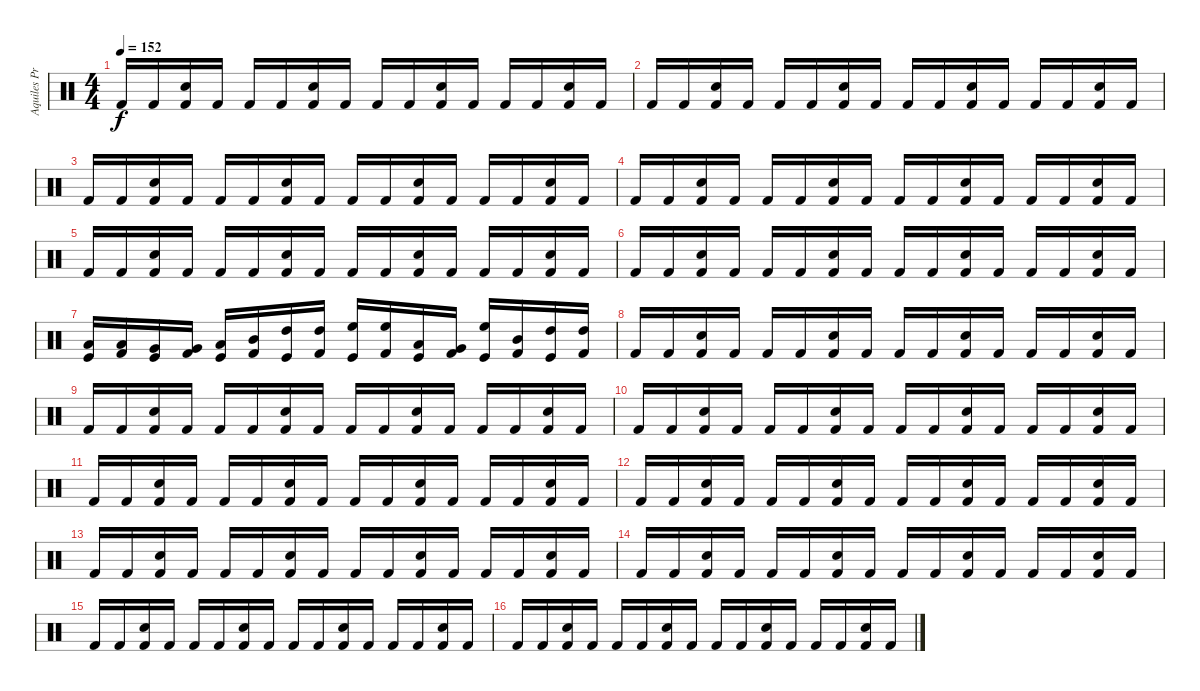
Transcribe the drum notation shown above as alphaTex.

\track ("Aquiles Priester" "Aquiles Pr") {instrument percussion}
\staff {score}
\articulation defaults
\ts (4 4)
\tempo 152
\clef neutral
\ks c "Kick (hit) 2".16{dy f} "Kick (hit) 2".16
("Electric Snare (hit)" "Kick (hit) 2").16 "Kick (hit) 2".16 "Kick (hit) 2".16 "Kick (hit) 2".16 ("Electric Snare (hit)" "Kick (hit) 2").16 "Kick (hit) 2".16 "Kick (hit) 2".16 "Kick (hit) 2".16 ("Electric Snare (hit)" "Kick (hit) 2").16 "Kick (hit) 2".16 "Kick (hit) 2".16 "Kick (hit) 2".16 ("Electric Snare (hit)" "Kick (hit) 2").16 "Kick (hit) 2".16 |
"Kick (hit) 2".16 "Kick (hit) 2".16 ("Electric Snare (hit)" "Kick (hit) 2").16 "Kick (hit) 2".16 "Kick (hit) 2".16 "Kick (hit) 2".16 ("Electric Snare (hit)" "Kick (hit) 2").16 "Kick (hit) 2".16 "Kick (hit) 2".16 "Kick (hit) 2".16 ("Electric Snare (hit)" "Kick (hit) 2").16 "Kick (hit) 2".16 "Kick (hit) 2".16 "Kick (hit) 2".16 ("Electric Snare (hit)" "Kick (hit) 2").16 "Kick (hit) 2".16 |
"Kick (hit) 2".16 "Kick (hit) 2".16 ("Electric Snare (hit)" "Kick (hit) 2").16 "Kick (hit) 2".16 "Kick (hit) 2".16 "Kick (hit) 2".16 ("Electric Snare (hit)" "Kick (hit) 2").16 "Kick (hit) 2".16 "Kick (hit) 2".16 "Kick (hit) 2".16 ("Electric Snare (hit)" "Kick (hit) 2").16 "Kick (hit) 2".16 "Kick (hit) 2".16 "Kick (hit) 2".16 ("Electric Snare (hit)" "Kick (hit) 2").16 "Kick (hit) 2".16 |
"Kick (hit) 2".16 "Kick (hit) 2".16 ("Electric Snare (hit)" "Kick (hit) 2").16 "Kick (hit) 2".16 "Kick (hit) 2".16 "Kick (hit) 2".16 ("Electric Snare (hit)" "Kick (hit) 2").16 "Kick (hit) 2".16 "Kick (hit) 2".16 "Kick (hit) 2".16 ("Electric Snare (hit)" "Kick (hit) 2").16 "Kick (hit) 2".16 "Kick (hit) 2".16 "Kick (hit) 2".16 ("Electric Snare (hit)" "Kick (hit) 2").16 "Kick (hit) 2".16 |
"Kick (hit) 2".16 "Kick (hit) 2".16 ("Electric Snare (hit)" "Kick (hit) 2").16 "Kick (hit) 2".16 "Kick (hit) 2".16 "Kick (hit) 2".16 ("Electric Snare (hit)" "Kick (hit) 2").16 "Kick (hit) 2".16 "Kick (hit) 2".16 "Kick (hit) 2".16 ("Electric Snare (hit)" "Kick (hit) 2").16 "Kick (hit) 2".16 "Kick (hit) 2".16 "Kick (hit) 2".16 ("Electric Snare (hit)" "Kick (hit) 2").16 "Kick (hit) 2".16 |
"Kick (hit) 2".16 "Kick (hit) 2".16 ("Electric Snare (hit)" "Kick (hit) 2").16 "Kick (hit) 2".16 "Kick (hit) 2".16 "Kick (hit) 2".16 ("Electric Snare (hit)" "Kick (hit) 2").16 "Kick (hit) 2".16 "Kick (hit) 2".16 "Kick (hit) 2".16 ("Electric Snare (hit)" "Kick (hit) 2").16 "Kick (hit) 2".16 "Kick (hit) 2".16 "Kick (hit) 2".16 ("Electric Snare (hit)" "Kick (hit) 2").16 "Kick (hit) 2".16 |
("Low Floor Tom (hit)" "Kick (hit)").16 ("Low Floor Tom (hit)" "Kick (hit) 2").16 ("Very Low Tom (hit)" "Kick (hit)").16 ("Very Low Tom (hit)" "Kick (hit) 2").16 ("Low Tom (hit)" "Kick (hit)").16 ("Mid Tom (hit)" "Kick (hit) 2").16 ("High Tom (hit)" "Kick (hit)").16 ("High Tom (hit)" "Kick (hit) 2").16 ("High Floor Tom (hit)" "Kick (hit)").16 ("High Floor Tom (hit)" "Kick (hit) 2").16 ("Low Floor Tom (hit)" "Kick (hit)").16 ("Very Low Tom (hit)" "Kick (hit) 2").16 ("High Floor Tom (hit)" "Kick (hit)").16 ("Mid Tom (hit)" "Kick (hit) 2").16 ("High Tom (hit)" "Kick (hit)").16 ("High Tom (hit)" "Kick (hit) 2").16 |
"Kick (hit) 2".16 "Kick (hit) 2".16 ("Electric Snare (hit)" "Kick (hit) 2").16 "Kick (hit) 2".16 "Kick (hit) 2".16 "Kick (hit) 2".16 ("Electric Snare (hit)" "Kick (hit) 2").16 "Kick (hit) 2".16 "Kick (hit) 2".16 "Kick (hit) 2".16 ("Electric Snare (hit)" "Kick (hit) 2").16 "Kick (hit) 2".16 "Kick (hit) 2".16 "Kick (hit) 2".16 ("Electric Snare (hit)" "Kick (hit) 2").16 "Kick (hit) 2".16 |
"Kick (hit) 2".16 "Kick (hit) 2".16 ("Electric Snare (hit)" "Kick (hit) 2").16 "Kick (hit) 2".16 "Kick (hit) 2".16 "Kick (hit) 2".16 ("Electric Snare (hit)" "Kick (hit) 2").16 "Kick (hit) 2".16 "Kick (hit) 2".16 "Kick (hit) 2".16 ("Electric Snare (hit)" "Kick (hit) 2").16 "Kick (hit) 2".16 "Kick (hit) 2".16 "Kick (hit) 2".16 ("Electric Snare (hit)" "Kick (hit) 2").16 "Kick (hit) 2".16 |
"Kick (hit) 2".16 "Kick (hit) 2".16 ("Electric Snare (hit)" "Kick (hit) 2").16 "Kick (hit) 2".16 "Kick (hit) 2".16 "Kick (hit) 2".16 ("Electric Snare (hit)" "Kick (hit) 2").16 "Kick (hit) 2".16 "Kick (hit) 2".16 "Kick (hit) 2".16 ("Electric Snare (hit)" "Kick (hit) 2").16 "Kick (hit) 2".16 "Kick (hit) 2".16 "Kick (hit) 2".16 ("Electric Snare (hit)" "Kick (hit) 2").16 "Kick (hit) 2".16 |
"Kick (hit) 2".16 "Kick (hit) 2".16 ("Electric Snare (hit)" "Kick (hit) 2").16 "Kick (hit) 2".16 "Kick (hit) 2".16 "Kick (hit) 2".16 ("Electric Snare (hit)" "Kick (hit) 2").16 "Kick (hit) 2".16 "Kick (hit) 2".16 "Kick (hit) 2".16 ("Electric Snare (hit)" "Kick (hit) 2").16 "Kick (hit) 2".16 "Kick (hit) 2".16 "Kick (hit) 2".16 ("Electric Snare (hit)" "Kick (hit) 2").16 "Kick (hit) 2".16 |
"Kick (hit) 2".16 "Kick (hit) 2".16 ("Electric Snare (hit)" "Kick (hit) 2").16 "Kick (hit) 2".16 "Kick (hit) 2".16 "Kick (hit) 2".16 ("Electric Snare (hit)" "Kick (hit) 2").16 "Kick (hit) 2".16 "Kick (hit) 2".16 "Kick (hit) 2".16 ("Electric Snare (hit)" "Kick (hit) 2").16 "Kick (hit) 2".16 "Kick (hit) 2".16 "Kick (hit) 2".16 ("Electric Snare (hit)" "Kick (hit) 2").16 "Kick (hit) 2".16 |
"Kick (hit) 2".16 "Kick (hit) 2".16 ("Electric Snare (hit)" "Kick (hit) 2").16 "Kick (hit) 2".16 "Kick (hit) 2".16 "Kick (hit) 2".16 ("Electric Snare (hit)" "Kick (hit) 2").16 "Kick (hit) 2".16 "Kick (hit) 2".16 "Kick (hit) 2".16 ("Electric Snare (hit)" "Kick (hit) 2").16 "Kick (hit) 2".16 "Kick (hit) 2".16 "Kick (hit) 2".16 ("Electric Snare (hit)" "Kick (hit) 2").16 "Kick (hit) 2".16 |
"Kick (hit) 2".16 "Kick (hit) 2".16 ("Electric Snare (hit)" "Kick (hit) 2").16 "Kick (hit) 2".16 "Kick (hit) 2".16 "Kick (hit) 2".16 ("Electric Snare (hit)" "Kick (hit) 2").16 "Kick (hit) 2".16 "Kick (hit) 2".16 "Kick (hit) 2".16 ("Electric Snare (hit)" "Kick (hit) 2").16 "Kick (hit) 2".16 "Kick (hit) 2".16 "Kick (hit) 2".16 ("Electric Snare (hit)" "Kick (hit) 2").16 "Kick (hit) 2".16 |
"Kick (hit) 2".16 "Kick (hit) 2".16 ("Electric Snare (hit)" "Kick (hit) 2").16 "Kick (hit) 2".16 "Kick (hit) 2".16 "Kick (hit) 2".16 ("Electric Snare (hit)" "Kick (hit) 2").16 "Kick (hit) 2".16 "Kick (hit) 2".16 "Kick (hit) 2".16 ("Electric Snare (hit)" "Kick (hit) 2").16 "Kick (hit) 2".16 "Kick (hit) 2".16 "Kick (hit) 2".16 ("Electric Snare (hit)" "Kick (hit) 2").16 "Kick (hit) 2".16 |
"Kick (hit) 2".16 "Kick (hit) 2".16 ("Electric Snare (hit)" "Kick (hit) 2").16 "Kick (hit) 2".16 "Kick (hit) 2".16 "Kick (hit) 2".16 ("Electric Snare (hit)" "Kick (hit) 2").16 "Kick (hit) 2".16 "Kick (hit) 2".16 "Kick (hit) 2".16 ("Electric Snare (hit)" "Kick (hit) 2").16 "Kick (hit) 2".16 "Kick (hit) 2".16 "Kick (hit) 2".16 ("Electric Snare (hit)" "Kick (hit) 2").16 "Kick (hit) 2".16
